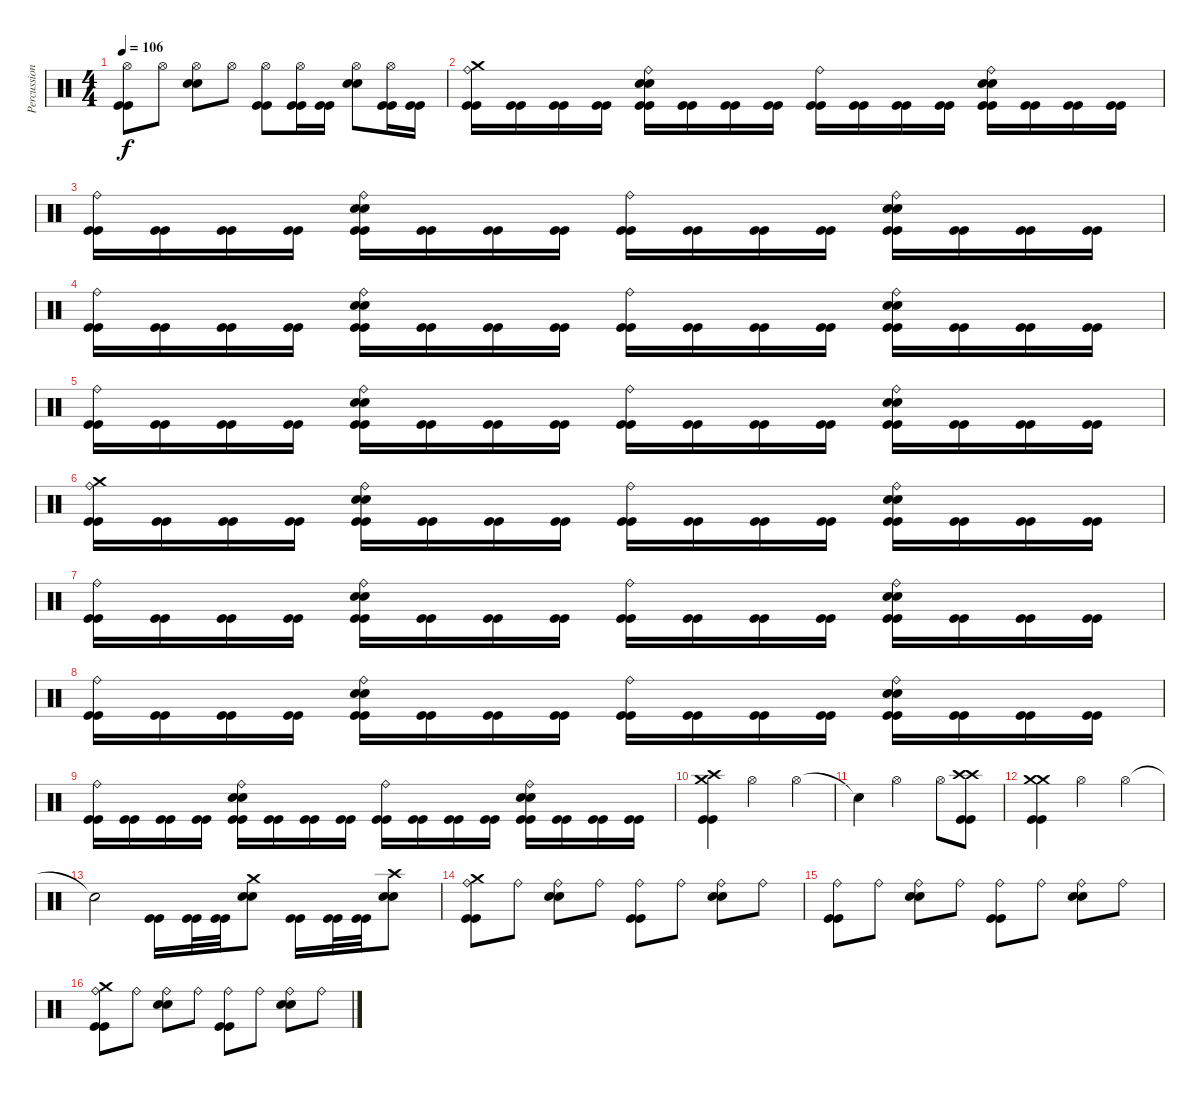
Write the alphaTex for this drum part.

\track ("Percussion" "Percussion") {instrument percussion}
\staff {score}
\articulation defaults
\ts (4 4)
\tempo 106
\clef neutral
\ks c
("Hi-Hat (open)" "Kick (hit)" "Kick (hit)").8{dy f} "Hi-Hat (open)".8 ("Hi-Hat (open)" "Snare (hit) 2" "Snare (hit) 2").8 "Hi-Hat (open)".8 ("Hi-Hat (open)" "Kick (hit)" "Kick (hit)").8 ("Hi-Hat (open)" "Kick (hit)" "Kick (hit)").16 ("Kick (hit)" "Kick (hit)").16 ("Hi-Hat (open)" "Snare (hit) 2" "Snare (hit) 2").8 ("Hi-Hat (open)" "Kick (hit)" "Kick (hit)").16 ("Kick (hit)" "Kick (hit)").16 |
("Ride (bell)" "Crash medium (hit)" "Kick (hit)" "Kick (hit)").16 ("Kick (hit)" "Kick (hit)").16 ("Kick (hit)" "Kick (hit)").16 ("Kick (hit)" "Kick (hit)").16 ("Ride (bell)" "Snare (hit) 2" "Snare (hit) 2" "Kick (hit)" "Kick (hit)").16 ("Kick (hit)" "Kick (hit)").16 ("Kick (hit)" "Kick (hit)").16 ("Kick (hit)" "Kick (hit)").16 ("Ride (bell)" "Kick (hit)" "Kick (hit)").16 ("Kick (hit)" "Kick (hit)").16 ("Kick (hit)" "Kick (hit)").16 ("Kick (hit)" "Kick (hit)").16 ("Ride (bell)" "Snare (hit) 2" "Snare (hit) 2" "Kick (hit)" "Kick (hit)").16 ("Kick (hit)" "Kick (hit)").16 ("Kick (hit)" "Kick (hit)").16 ("Kick (hit)" "Kick (hit)").16 |
("Ride (bell)" "Kick (hit)" "Kick (hit)").16 ("Kick (hit)" "Kick (hit)").16 ("Kick (hit)" "Kick (hit)").16 ("Kick (hit)" "Kick (hit)").16 ("Ride (bell)" "Snare (hit) 2" "Snare (hit) 2" "Kick (hit)" "Kick (hit)").16 ("Kick (hit)" "Kick (hit)").16 ("Kick (hit)" "Kick (hit)").16 ("Kick (hit)" "Kick (hit)").16 ("Ride (bell)" "Kick (hit)" "Kick (hit)").16 ("Kick (hit)" "Kick (hit)").16 ("Kick (hit)" "Kick (hit)").16 ("Kick (hit)" "Kick (hit)").16 ("Ride (bell)" "Snare (hit) 2" "Snare (hit) 2" "Kick (hit)" "Kick (hit)").16 ("Kick (hit)" "Kick (hit)").16 ("Kick (hit)" "Kick (hit)").16 ("Kick (hit)" "Kick (hit)").16 |
("Ride (bell)" "Kick (hit)" "Kick (hit)").16 ("Kick (hit)" "Kick (hit)").16 ("Kick (hit)" "Kick (hit)").16 ("Kick (hit)" "Kick (hit)").16 ("Ride (bell)" "Snare (hit) 2" "Snare (hit) 2" "Kick (hit)" "Kick (hit)").16 ("Kick (hit)" "Kick (hit)").16 ("Kick (hit)" "Kick (hit)").16 ("Kick (hit)" "Kick (hit)").16 ("Ride (bell)" "Kick (hit)" "Kick (hit)").16 ("Kick (hit)" "Kick (hit)").16 ("Kick (hit)" "Kick (hit)").16 ("Kick (hit)" "Kick (hit)").16 ("Ride (bell)" "Snare (hit) 2" "Snare (hit) 2" "Kick (hit)" "Kick (hit)").16 ("Kick (hit)" "Kick (hit)").16 ("Kick (hit)" "Kick (hit)").16 ("Kick (hit)" "Kick (hit)").16 |
("Ride (bell)" "Kick (hit)" "Kick (hit)").16 ("Kick (hit)" "Kick (hit)").16 ("Kick (hit)" "Kick (hit)").16 ("Kick (hit)" "Kick (hit)").16 ("Ride (bell)" "Snare (hit) 2" "Snare (hit) 2" "Kick (hit)" "Kick (hit)").16 ("Kick (hit)" "Kick (hit)").16 ("Kick (hit)" "Kick (hit)").16 ("Kick (hit)" "Kick (hit)").16 ("Ride (bell)" "Kick (hit)" "Kick (hit)").16 ("Kick (hit)" "Kick (hit)").16 ("Kick (hit)" "Kick (hit)").16 ("Kick (hit)" "Kick (hit)").16 ("Ride (bell)" "Snare (hit) 2" "Snare (hit) 2" "Kick (hit)" "Kick (hit)").16 ("Kick (hit)" "Kick (hit)").16 ("Kick (hit)" "Kick (hit)").16 ("Kick (hit)" "Kick (hit)").16 |
("Ride (bell)" "Crash medium (hit)" "Kick (hit)" "Kick (hit)").16 ("Kick (hit)" "Kick (hit)").16 ("Kick (hit)" "Kick (hit)").16 ("Kick (hit)" "Kick (hit)").16 ("Ride (bell)" "Snare (hit) 2" "Snare (hit) 2" "Kick (hit)" "Kick (hit)").16 ("Kick (hit)" "Kick (hit)").16 ("Kick (hit)" "Kick (hit)").16 ("Kick (hit)" "Kick (hit)").16 ("Ride (bell)" "Kick (hit)" "Kick (hit)").16 ("Kick (hit)" "Kick (hit)").16 ("Kick (hit)" "Kick (hit)").16 ("Kick (hit)" "Kick (hit)").16 ("Ride (bell)" "Snare (hit) 2" "Snare (hit) 2" "Kick (hit)" "Kick (hit)").16 ("Kick (hit)" "Kick (hit)").16 ("Kick (hit)" "Kick (hit)").16 ("Kick (hit)" "Kick (hit)").16 |
("Ride (bell)" "Kick (hit)" "Kick (hit)").16 ("Kick (hit)" "Kick (hit)").16 ("Kick (hit)" "Kick (hit)").16 ("Kick (hit)" "Kick (hit)").16 ("Ride (bell)" "Snare (hit) 2" "Snare (hit) 2" "Kick (hit)" "Kick (hit)").16 ("Kick (hit)" "Kick (hit)").16 ("Kick (hit)" "Kick (hit)").16 ("Kick (hit)" "Kick (hit)").16 ("Ride (bell)" "Kick (hit)" "Kick (hit)").16 ("Kick (hit)" "Kick (hit)").16 ("Kick (hit)" "Kick (hit)").16 ("Kick (hit)" "Kick (hit)").16 ("Ride (bell)" "Snare (hit) 2" "Snare (hit) 2" "Kick (hit)" "Kick (hit)").16 ("Kick (hit)" "Kick (hit)").16 ("Kick (hit)" "Kick (hit)").16 ("Kick (hit)" "Kick (hit)").16 |
("Ride (bell)" "Kick (hit)" "Kick (hit)").16 ("Kick (hit)" "Kick (hit)").16 ("Kick (hit)" "Kick (hit)").16 ("Kick (hit)" "Kick (hit)").16 ("Ride (bell)" "Snare (hit) 2" "Snare (hit) 2" "Kick (hit)" "Kick (hit)").16 ("Kick (hit)" "Kick (hit)").16 ("Kick (hit)" "Kick (hit)").16 ("Kick (hit)" "Kick (hit)").16 ("Ride (bell)" "Kick (hit)" "Kick (hit)").16 ("Kick (hit)" "Kick (hit)").16 ("Kick (hit)" "Kick (hit)").16 ("Kick (hit)" "Kick (hit)").16 ("Ride (bell)" "Snare (hit) 2" "Snare (hit) 2" "Kick (hit)" "Kick (hit)").16 ("Kick (hit)" "Kick (hit)").16 ("Kick (hit)" "Kick (hit)").16 ("Kick (hit)" "Kick (hit)").16 |
("Ride (bell)" "Kick (hit)" "Kick (hit)").16 ("Kick (hit)" "Kick (hit)").16 ("Kick (hit)" "Kick (hit)").16 ("Kick (hit)" "Kick (hit)").16 ("Ride (bell)" "Snare (hit) 2" "Snare (hit) 2" "Kick (hit)" "Kick (hit)").16 ("Kick (hit)" "Kick (hit)").16 ("Kick (hit)" "Kick (hit)").16 ("Kick (hit)" "Kick (hit)").16 ("Ride (bell)" "Kick (hit)" "Kick (hit)").16 ("Kick (hit)" "Kick (hit)").16 ("Kick (hit)" "Kick (hit)").16 ("Kick (hit)" "Kick (hit)").16 ("Ride (bell)" "Snare (hit) 2" "Snare (hit) 2" "Kick (hit)" "Kick (hit)").16 ("Kick (hit)" "Kick (hit)").16 ("Kick (hit)" "Kick (hit)").16 ("Kick (hit)" "Kick (hit)").16 |
("Crash high (hit)" "Crash medium (hit)" "Kick (hit)" "Kick (hit)").4 "Hi-Hat (open)".2 "Hi-Hat (open)".4 |
"Snare (hit)"{t}.4 "Hi-Hat (open)".2 "Hi-Hat (open)".8 ("Crash high (hit)" "Crash high (hit)" "Kick (hit)" "Kick (hit)").8 |
("Crash medium (hit)" "Crash medium (hit)" "Kick (hit)" "Kick (hit)").4 "Hi-Hat (open)".2 "Hi-Hat (open)".4 |
"Snare (hit)"{t}.2 ("Kick (hit)" "Kick (hit)").16 ("Kick (hit)" "Kick (hit)").32 ("Kick (hit)" "Kick (hit)").32 ("Crash medium (hit)" "Snare (hit) 2" "Snare (hit) 2").8 ("Kick (hit)" "Kick (hit)").16 ("Kick (hit)" "Kick (hit)").32 ("Kick (hit)" "Kick (hit)").32 ("Crash high (hit)" "Snare (hit) 2" "Snare (hit) 2").8 |
("Crash medium (hit)" "Ride (bell)" "Kick (hit)" "Kick (hit)").8 "Ride (bell)".8 ("Ride (bell)" "Snare (hit) 2" "Snare (hit) 2").8 "Ride (bell)".8 ("Ride (bell)" "Kick (hit)" "Kick (hit)").8 "Ride (bell)".8 ("Ride (bell)" "Snare (hit) 2" "Snare (hit) 2").8 "Ride (bell)".8 |
("Ride (bell)" "Kick (hit)" "Kick (hit)").8 "Ride (bell)".8 ("Ride (bell)" "Snare (hit) 2" "Snare (hit) 2").8 "Ride (bell)".8 ("Ride (bell)" "Kick (hit)" "Kick (hit)").8 "Ride (bell)".8 ("Ride (bell)" "Snare (hit) 2" "Snare (hit) 2").8 "Ride (bell)".8 |
("Crash medium (hit)" "Ride (bell)" "Kick (hit)" "Kick (hit)").8 "Ride (bell)".8 ("Ride (bell)" "Snare (hit) 2" "Snare (hit) 2").8 "Ride (bell)".8 ("Ride (bell)" "Kick (hit)" "Kick (hit)").8 "Ride (bell)".8 ("Ride (bell)" "Snare (hit) 2" "Snare (hit) 2").8 "Ride (bell)".8
